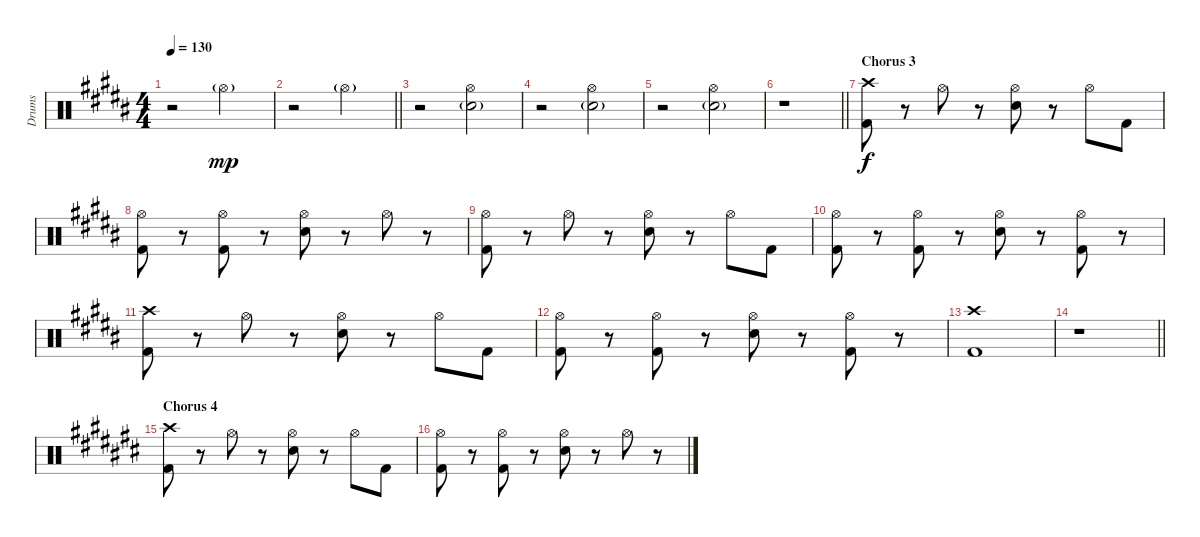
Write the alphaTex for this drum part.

\track ("Drums" "Drums") {instrument percussion}
\staff {score}
\articulation defaults
\ts (4 4)
\tempo 130
\clef neutral
\ks b
r.2{dy mp} "Hi-Hat (open)"{g}.2 |
\barLineRight lightlight
r.2 "Hi-Hat (open)"{g}.2 |
r.2 ("Hi-Hat (open)" "Electric Snare (hit)"{g}).2 |
r.2 ("Hi-Hat (open)" "Electric Snare (hit)"{g}).2 |
r.2 ("Hi-Hat (open)" "Electric Snare (hit)"{g}).2 |
\barLineRight lightlight
r.1 |
\section ("" "Chorus 3")
("Crash high (hit)" "Kick (hit) 2").8{dy f} r.8 "Hi-Hat (open)".8 r.8 ("Hi-Hat (open)" "Electric Snare (hit)").8 r.8 "Hi-Hat (open)".8 "Kick (hit) 2".8 |
("Hi-Hat (open)" "Kick (hit) 2").8 r.8 ("Hi-Hat (open)" "Kick (hit) 2").8 r.8 ("Hi-Hat (open)" "Electric Snare (hit)").8 r.8 "Hi-Hat (open)".8 r.8 |
("Hi-Hat (open)" "Kick (hit) 2").8 r.8 "Hi-Hat (open)".8 r.8 ("Hi-Hat (open)" "Electric Snare (hit)").8 r.8 "Hi-Hat (open)".8 "Kick (hit) 2".8 |
("Hi-Hat (open)" "Kick (hit) 2").8 r.8 ("Hi-Hat (open)" "Kick (hit) 2").8 r.8 ("Hi-Hat (open)" "Electric Snare (hit)").8 r.8 ("Hi-Hat (open)" "Kick (hit) 2").8 r.8 |
("Crash high (hit)" "Kick (hit) 2").8 r.8 "Hi-Hat (open)".8 r.8 ("Hi-Hat (open)" "Electric Snare (hit)").8 r.8 "Hi-Hat (open)".8 "Kick (hit) 2".8 |
("Hi-Hat (open)" "Kick (hit) 2").8 r.8 ("Hi-Hat (open)" "Kick (hit) 2").8 r.8 ("Hi-Hat (open)" "Electric Snare (hit)").8 r.8 ("Hi-Hat (open)" "Kick (hit) 2").8 r.8 |
("Crash high (hit)" "Kick (hit) 2").1 |
\barLineRight lightlight
r.1 |
\section ("" "Chorus 4")
\ks c#
("Crash high (hit)" "Kick (hit) 2").8 r.8 "Hi-Hat (open)".8 r.8 ("Hi-Hat (open)" "Electric Snare (hit)").8 r.8 "Hi-Hat (open)".8 "Kick (hit) 2".8 |
("Hi-Hat (open)" "Kick (hit) 2").8 r.8 ("Hi-Hat (open)" "Kick (hit) 2").8 r.8 ("Hi-Hat (open)" "Electric Snare (hit)").8 r.8 "Hi-Hat (open)".8 r.8
